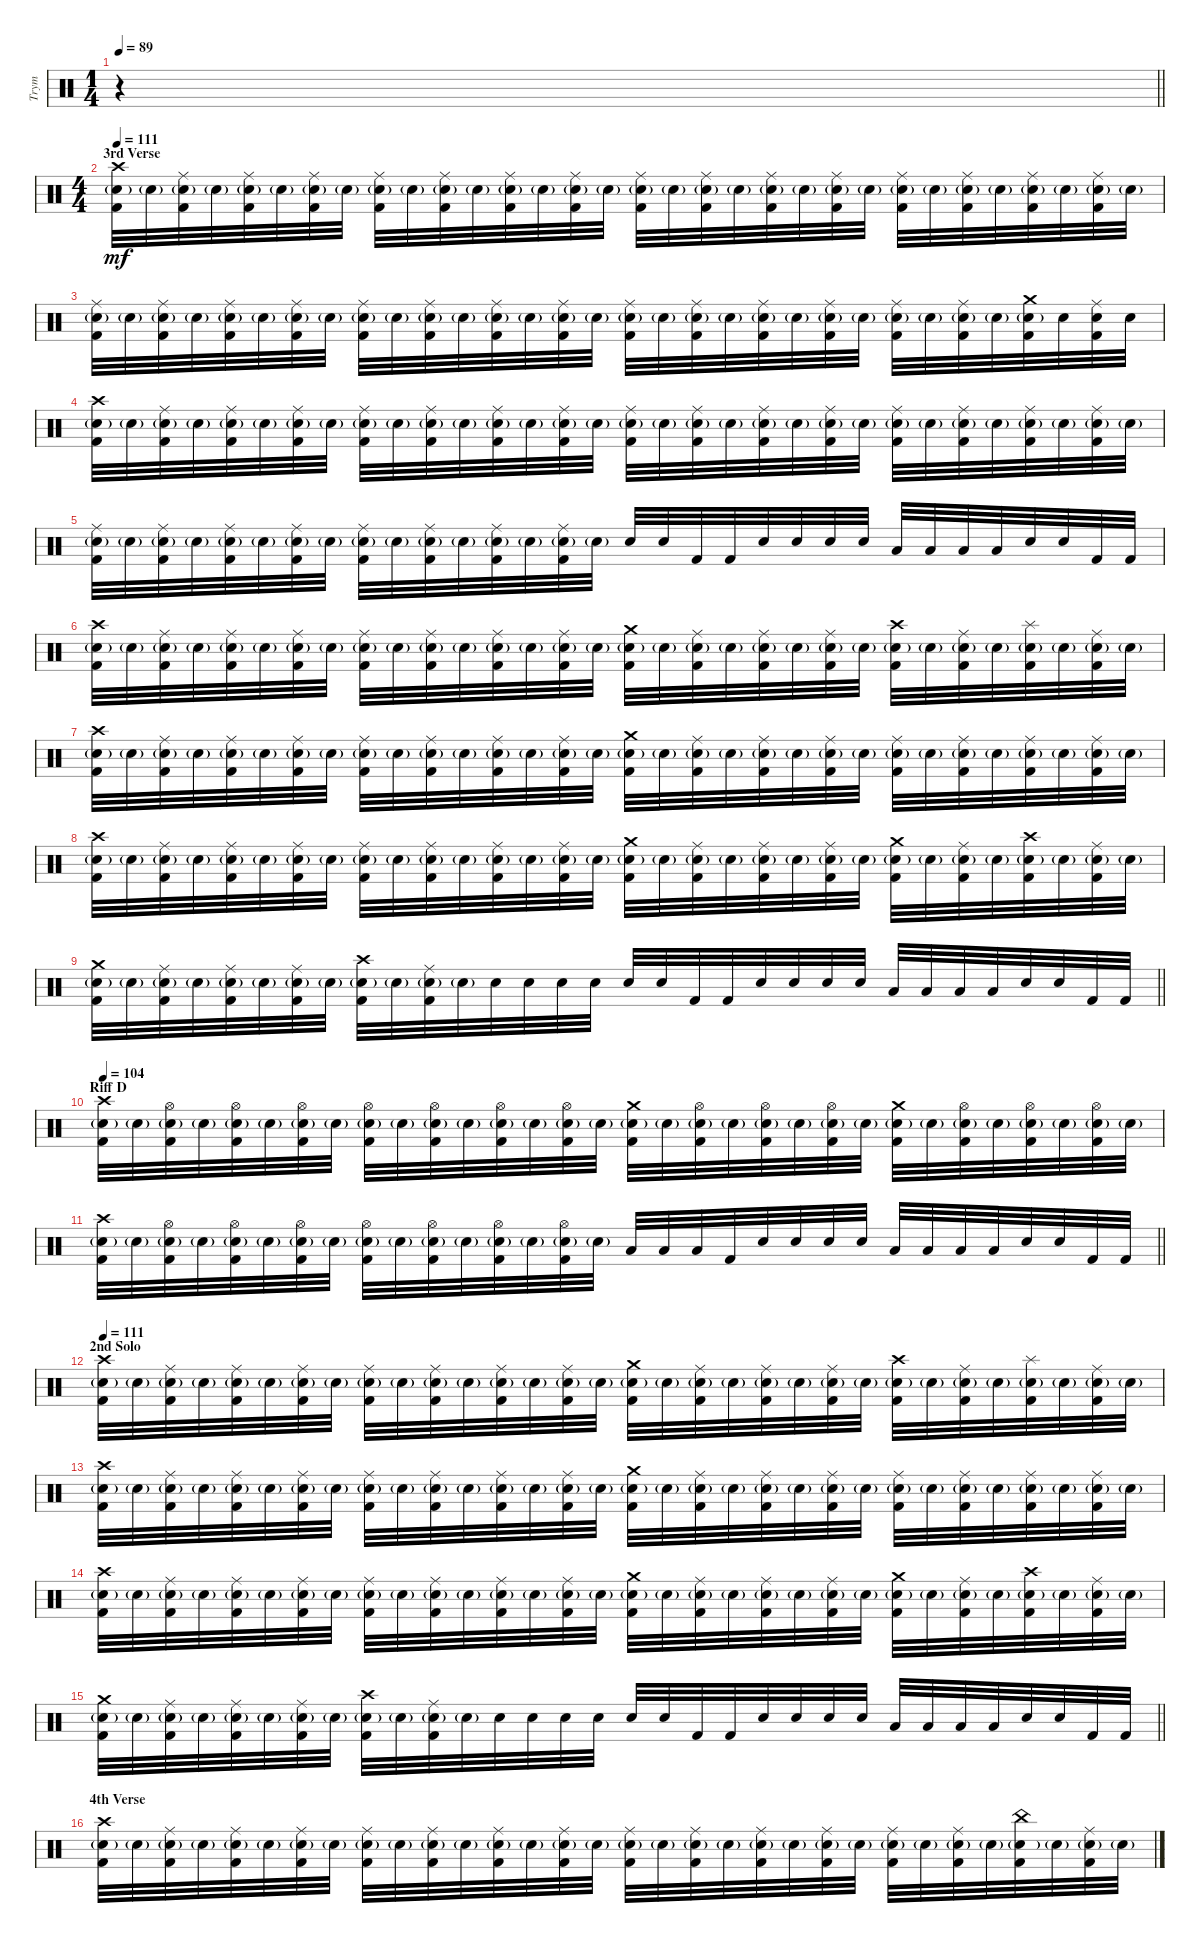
\track ("Trym" "Trym") {instrument percussion}
\staff {score}
\articulation defaults
\ts (1 4)
\tempo 89
\clef neutral
\barLineRight lightlight
\ks c
r.4{dy f} |
\ts (4 4)
\section ("" "3rd Verse")
\tempo 111
("Crash high (hit)" "Snare (hit) 2"{g} "Kick (hit) 2").32{dy mf} "Snare (hit) 2"{g}.32 ("Ride (middle)" "Snare (hit) 2"{g} "Kick (hit) 2").32 "Snare (hit) 2"{g}.32 ("Ride (middle)" "Snare (hit) 2"{g} "Kick (hit) 2").32 "Snare (hit) 2"{g}.32 ("Ride (middle)" "Snare (hit) 2"{g} "Kick (hit) 2").32 "Snare (hit) 2"{g}.32 ("Ride (middle)" "Snare (hit) 2"{g} "Kick (hit) 2").32 "Snare (hit) 2"{g}.32 ("Ride (middle)" "Snare (hit) 2"{g} "Kick (hit) 2").32 "Snare (hit) 2"{g}.32 ("Ride (middle)" "Snare (hit) 2"{g} "Kick (hit) 2").32 "Snare (hit) 2"{g}.32 ("Ride (middle)" "Snare (hit) 2"{g} "Kick (hit) 2").32 "Snare (hit) 2"{g}.32 ("Ride (middle)" "Snare (hit) 2"{g} "Kick (hit) 2").32 "Snare (hit) 2"{g}.32 ("Ride (middle)" "Snare (hit) 2"{g} "Kick (hit) 2").32 "Snare (hit) 2"{g}.32 ("Ride (middle)" "Snare (hit) 2"{g} "Kick (hit) 2").32 "Snare (hit) 2"{g}.32 ("Ride (middle)" "Snare (hit) 2"{g} "Kick (hit) 2").32 "Snare (hit) 2"{g}.32 ("Ride (middle)" "Snare (hit) 2"{g} "Kick (hit) 2").32 "Snare (hit) 2"{g}.32 ("Ride (middle)" "Snare (hit) 2"{g} "Kick (hit) 2").32 "Snare (hit) 2"{g}.32 ("Ride (middle)" "Snare (hit) 2"{g} "Kick (hit) 2").32 "Snare (hit) 2"{g}.32 ("Ride (middle)" "Snare (hit) 2"{g} "Kick (hit) 2").32 "Snare (hit) 2"{g}.32 |
("Ride (middle)" "Snare (hit) 2"{g} "Kick (hit) 2").32 "Snare (hit) 2"{g}.32 ("Ride (middle)" "Snare (hit) 2"{g} "Kick (hit) 2").32 "Snare (hit) 2"{g}.32 ("Ride (middle)" "Snare (hit) 2"{g} "Kick (hit) 2").32 "Snare (hit) 2"{g}.32 ("Ride (middle)" "Snare (hit) 2"{g} "Kick (hit) 2").32 "Snare (hit) 2"{g}.32 ("Ride (middle)" "Snare (hit) 2"{g} "Kick (hit) 2").32 "Snare (hit) 2"{g}.32 ("Ride (middle)" "Snare (hit) 2"{g} "Kick (hit) 2").32 "Snare (hit) 2"{g}.32 ("Ride (middle)" "Snare (hit) 2"{g} "Kick (hit) 2").32 "Snare (hit) 2"{g}.32 ("Ride (middle)" "Snare (hit) 2"{g} "Kick (hit) 2").32 "Snare (hit) 2"{g}.32 ("Ride (middle)" "Snare (hit) 2"{g} "Kick (hit) 2").32 "Snare (hit) 2"{g}.32 ("Ride (middle)" "Snare (hit) 2"{g} "Kick (hit) 2").32 "Snare (hit) 2"{g}.32 ("Ride (middle)" "Snare (hit) 2"{g} "Kick (hit) 2").32 "Snare (hit) 2"{g}.32 ("Ride (middle)" "Snare (hit) 2"{g} "Kick (hit) 2").32 "Snare (hit) 2"{g}.32 ("Ride (middle)" "Snare (hit) 2"{g} "Kick (hit) 2").32 "Snare (hit) 2"{g}.32 ("Ride (middle)" "Snare (hit) 2"{g} "Kick (hit) 2").32 "Snare (hit) 2"{g}.32 ("Crash medium (hit)" "Snare (hit) 2"{g} "Kick (hit) 2").32 "Snare (hit) 2".32 ("Ride (middle)" "Snare (hit) 2" "Kick (hit) 2").32 "Snare (hit) 2".32 |
("Crash high (hit)" "Snare (hit) 2"{g} "Kick (hit) 2").32 "Snare (hit) 2"{g}.32 ("Ride (middle)" "Snare (hit) 2"{g} "Kick (hit) 2").32 "Snare (hit) 2"{g}.32 ("Ride (middle)" "Snare (hit) 2"{g} "Kick (hit) 2").32 "Snare (hit) 2"{g}.32 ("Ride (middle)" "Snare (hit) 2"{g} "Kick (hit) 2").32 "Snare (hit) 2"{g}.32 ("Ride (middle)" "Snare (hit) 2"{g} "Kick (hit) 2").32 "Snare (hit) 2"{g}.32 ("Ride (middle)" "Snare (hit) 2"{g} "Kick (hit) 2").32 "Snare (hit) 2"{g}.32 ("Ride (middle)" "Snare (hit) 2"{g} "Kick (hit) 2").32 "Snare (hit) 2"{g}.32 ("Ride (middle)" "Snare (hit) 2"{g} "Kick (hit) 2").32 "Snare (hit) 2"{g}.32 ("Ride (middle)" "Snare (hit) 2"{g} "Kick (hit) 2").32 "Snare (hit) 2"{g}.32 ("Ride (middle)" "Snare (hit) 2"{g} "Kick (hit) 2").32 "Snare (hit) 2"{g}.32 ("Ride (middle)" "Snare (hit) 2"{g} "Kick (hit) 2").32 "Snare (hit) 2"{g}.32 ("Ride (middle)" "Snare (hit) 2"{g} "Kick (hit) 2").32 "Snare (hit) 2"{g}.32 ("Ride (middle)" "Snare (hit) 2"{g} "Kick (hit) 2").32 "Snare (hit) 2"{g}.32 ("Ride (middle)" "Snare (hit) 2"{g} "Kick (hit) 2").32 "Snare (hit) 2"{g}.32 ("Ride (middle)" "Snare (hit) 2"{g} "Kick (hit) 2").32 "Snare (hit) 2"{g}.32 ("Ride (middle)" "Snare (hit) 2"{g} "Kick (hit) 2").32 "Snare (hit) 2"{g}.32 |
("Ride (middle)" "Snare (hit) 2"{g} "Kick (hit) 2").32 "Snare (hit) 2"{g}.32 ("Ride (middle)" "Snare (hit) 2"{g} "Kick (hit) 2").32 "Snare (hit) 2"{g}.32 ("Ride (middle)" "Snare (hit) 2"{g} "Kick (hit) 2").32 "Snare (hit) 2"{g}.32 ("Ride (middle)" "Snare (hit) 2"{g} "Kick (hit) 2").32 "Snare (hit) 2"{g}.32 ("Ride (middle)" "Snare (hit) 2"{g} "Kick (hit) 2").32 "Snare (hit) 2"{g}.32 ("Ride (middle)" "Snare (hit) 2"{g} "Kick (hit) 2").32 "Snare (hit) 2"{g}.32 ("Ride (middle)" "Snare (hit) 2"{g} "Kick (hit) 2").32 "Snare (hit) 2"{g}.32 ("Ride (middle)" "Snare (hit) 2"{g} "Kick (hit) 2").32 "Snare (hit) 2"{g}.32 "Snare (hit) 2".32 "Snare (hit) 2".32 "Kick (hit) 2".32 "Kick (hit) 2".32 "Snare (hit) 2".32 "Snare (hit) 2".32 "Snare (hit) 2".32 "Snare (hit) 2".32 "Low Tom (hit)".32 "Low Tom (hit)".32 "Low Tom (hit)".32 "Low Tom (hit)".32 "Snare (hit) 2".32 "Snare (hit) 2".32 "Kick (hit) 2".32 "Kick (hit) 2".32 |
("Crash high (hit)" "Snare (hit) 2"{g} "Kick (hit) 2").32 "Snare (hit) 2"{g}.32 ("Ride (middle)" "Snare (hit) 2"{g} "Kick (hit) 2").32 "Snare (hit) 2"{g}.32 ("Ride (middle)" "Snare (hit) 2"{g} "Kick (hit) 2").32 "Snare (hit) 2"{g}.32 ("Ride (middle)" "Snare (hit) 2"{g} "Kick (hit) 2").32 "Snare (hit) 2"{g}.32 ("Ride (middle)" "Snare (hit) 2"{g} "Kick (hit) 2").32 "Snare (hit) 2"{g}.32 ("Ride (middle)" "Snare (hit) 2"{g} "Kick (hit) 2").32 "Snare (hit) 2"{g}.32 ("Ride (middle)" "Snare (hit) 2"{g} "Kick (hit) 2").32 "Snare (hit) 2"{g}.32 ("Ride (middle)" "Snare (hit) 2"{g} "Kick (hit) 2").32 "Snare (hit) 2"{g}.32 ("Crash medium (hit)" "Snare (hit) 2"{g} "Kick (hit) 2").32 "Snare (hit) 2"{g}.32 ("Ride (middle)" "Snare (hit) 2"{g} "Kick (hit) 2").32 "Snare (hit) 2"{g}.32 ("Ride (middle)" "Snare (hit) 2"{g} "Kick (hit) 2").32 "Snare (hit) 2"{g}.32 ("Ride (middle)" "Snare (hit) 2"{g} "Kick (hit) 2").32 "Snare (hit) 2"{g}.32 ("Crash high (hit)" "Snare (hit) 2"{g} "Kick (hit) 2").32 "Snare (hit) 2"{g}.32 ("Ride (middle)" "Snare (hit) 2"{g} "Kick (hit) 2").32 "Snare (hit) 2"{g}.32 ("Splash (hit)" "Snare (hit) 2"{g} "Kick (hit) 2").32 "Snare (hit) 2"{g}.32 ("Ride (middle)" "Snare (hit) 2"{g} "Kick (hit) 2").32 "Snare (hit) 2"{g}.32 |
("Crash high (hit)" "Snare (hit) 2"{g} "Kick (hit) 2").32 "Snare (hit) 2"{g}.32 ("Ride (middle)" "Snare (hit) 2"{g} "Kick (hit) 2").32 "Snare (hit) 2"{g}.32 ("Ride (middle)" "Snare (hit) 2"{g} "Kick (hit) 2").32 "Snare (hit) 2"{g}.32 ("Ride (middle)" "Snare (hit) 2"{g} "Kick (hit) 2").32 "Snare (hit) 2"{g}.32 ("Ride (middle)" "Snare (hit) 2"{g} "Kick (hit) 2").32 "Snare (hit) 2"{g}.32 ("Ride (middle)" "Snare (hit) 2"{g} "Kick (hit) 2").32 "Snare (hit) 2"{g}.32 ("Ride (middle)" "Snare (hit) 2"{g} "Kick (hit) 2").32 "Snare (hit) 2"{g}.32 ("Ride (middle)" "Snare (hit) 2"{g} "Kick (hit) 2").32 "Snare (hit) 2"{g}.32 ("Crash medium (hit)" "Snare (hit) 2"{g} "Kick (hit) 2").32 "Snare (hit) 2"{g}.32 ("Ride (middle)" "Snare (hit) 2"{g} "Kick (hit) 2").32 "Snare (hit) 2"{g}.32 ("Ride (middle)" "Snare (hit) 2"{g} "Kick (hit) 2").32 "Snare (hit) 2"{g}.32 ("Ride (middle)" "Snare (hit) 2"{g} "Kick (hit) 2").32 "Snare (hit) 2"{g}.32 ("Ride (middle)" "Snare (hit) 2"{g} "Kick (hit) 2").32 "Snare (hit) 2"{g}.32 ("Ride (middle)" "Snare (hit) 2"{g} "Kick (hit) 2").32 "Snare (hit) 2"{g}.32 ("Ride (middle)" "Snare (hit) 2"{g} "Kick (hit) 2").32 "Snare (hit) 2"{g}.32 ("Ride (middle)" "Snare (hit) 2"{g} "Kick (hit) 2").32 "Snare (hit) 2"{g}.32 |
("Crash high (hit)" "Snare (hit) 2"{g} "Kick (hit) 2").32 "Snare (hit) 2"{g}.32 ("Ride (middle)" "Snare (hit) 2"{g} "Kick (hit) 2").32 "Snare (hit) 2"{g}.32 ("Ride (middle)" "Snare (hit) 2"{g} "Kick (hit) 2").32 "Snare (hit) 2"{g}.32 ("Ride (middle)" "Snare (hit) 2"{g} "Kick (hit) 2").32 "Snare (hit) 2"{g}.32 ("Ride (middle)" "Snare (hit) 2"{g} "Kick (hit) 2").32 "Snare (hit) 2"{g}.32 ("Ride (middle)" "Snare (hit) 2"{g} "Kick (hit) 2").32 "Snare (hit) 2"{g}.32 ("Ride (middle)" "Snare (hit) 2"{g} "Kick (hit) 2").32 "Snare (hit) 2"{g}.32 ("Ride (middle)" "Snare (hit) 2"{g} "Kick (hit) 2").32 "Snare (hit) 2"{g}.32 ("Crash medium (hit)" "Snare (hit) 2"{g} "Kick (hit) 2").32 "Snare (hit) 2"{g}.32 ("Ride (middle)" "Snare (hit) 2"{g} "Kick (hit) 2").32 "Snare (hit) 2"{g}.32 ("Ride (middle)" "Snare (hit) 2"{g} "Kick (hit) 2").32 "Snare (hit) 2"{g}.32 ("Ride (middle)" "Snare (hit) 2"{g} "Kick (hit) 2").32 "Snare (hit) 2"{g}.32 ("Crash medium (hit)" "Snare (hit) 2"{g} "Kick (hit) 2").32 "Snare (hit) 2"{g}.32 ("Ride (middle)" "Snare (hit) 2"{g} "Kick (hit) 2").32 "Snare (hit) 2"{g}.32 ("Crash high (hit)" "Snare (hit) 2"{g} "Kick (hit) 2").32 "Snare (hit) 2"{g}.32 ("Ride (middle)" "Snare (hit) 2"{g} "Kick (hit) 2").32 "Snare (hit) 2"{g}.32 |
\barLineRight lightlight
("Crash medium (hit)" "Snare (hit) 2"{g} "Kick (hit) 2").32 "Snare (hit) 2"{g}.32 ("Ride (middle)" "Snare (hit) 2"{g} "Kick (hit) 2").32 "Snare (hit) 2"{g}.32 ("Ride (middle)" "Snare (hit) 2"{g} "Kick (hit) 2").32 "Snare (hit) 2"{g}.32 ("Ride (middle)" "Snare (hit) 2"{g} "Kick (hit) 2").32 "Snare (hit) 2"{g}.32 ("Crash high (hit)" "Snare (hit) 2"{g} "Kick (hit) 2").32 "Snare (hit) 2"{g}.32 ("Ride (middle)" "Snare (hit) 2"{g} "Kick (hit) 2").32 "Snare (hit) 2"{g}.32 "Snare (hit) 2".32 "Snare (hit) 2".32 "Snare (hit) 2".32 "Snare (hit) 2".32 "Snare (hit) 2".32 "Snare (hit) 2".32 "Kick (hit) 2".32 "Kick (hit) 2".32 "Snare (hit) 2".32 "Snare (hit) 2".32 "Snare (hit) 2".32 "Snare (hit) 2".32 "Low Tom (hit)".32 "Low Tom (hit)".32 "Low Tom (hit)".32 "Low Tom (hit)".32 "Snare (hit) 2".32 "Snare (hit) 2".32 "Kick (hit) 2".32 "Kick (hit) 2".32 |
\section ("" "Riff D")
\tempo 104
("Crash high (hit)" "Snare (hit) 2"{g} "Kick (hit) 2").32 "Snare (hit) 2"{g}.32 ("Hi-Hat (open)" "Snare (hit) 2"{g} "Kick (hit) 2").32 "Snare (hit) 2"{g}.32 ("Hi-Hat (open)" "Snare (hit) 2"{g} "Kick (hit) 2").32 "Snare (hit) 2"{g}.32 ("Hi-Hat (open)" "Snare (hit) 2"{g} "Kick (hit) 2").32 "Snare (hit) 2"{g}.32 ("Hi-Hat (open)" "Snare (hit) 2"{g} "Kick (hit) 2").32 "Snare (hit) 2"{g}.32 ("Hi-Hat (open)" "Snare (hit) 2"{g} "Kick (hit) 2").32 "Snare (hit) 2"{g}.32 ("Hi-Hat (open)" "Snare (hit) 2"{g} "Kick (hit) 2").32 "Snare (hit) 2"{g}.32 ("Hi-Hat (open)" "Snare (hit) 2"{g} "Kick (hit) 2").32 "Snare (hit) 2"{g}.32 ("Crash medium (hit)" "Snare (hit) 2"{g} "Kick (hit) 2").32 "Snare (hit) 2"{g}.32 ("Hi-Hat (open)" "Snare (hit) 2"{g} "Kick (hit) 2").32 "Snare (hit) 2"{g}.32 ("Hi-Hat (open)" "Snare (hit) 2"{g} "Kick (hit) 2").32 "Snare (hit) 2"{g}.32 ("Hi-Hat (open)" "Snare (hit) 2"{g} "Kick (hit) 2").32 "Snare (hit) 2"{g}.32 ("Crash medium (hit)" "Snare (hit) 2"{g} "Kick (hit) 2").32 "Snare (hit) 2"{g}.32 ("Hi-Hat (open)" "Snare (hit) 2"{g} "Kick (hit) 2").32 "Snare (hit) 2"{g}.32 ("Hi-Hat (open)" "Snare (hit) 2"{g} "Kick (hit) 2").32 "Snare (hit) 2"{g}.32 ("Hi-Hat (open)" "Snare (hit) 2"{g} "Kick (hit) 2").32 "Snare (hit) 2"{g}.32 |
\barLineRight lightlight
("Crash high (hit)" "Snare (hit) 2"{g} "Kick (hit) 2").32 "Snare (hit) 2"{g}.32 ("Hi-Hat (open)" "Snare (hit) 2"{g} "Kick (hit) 2").32 "Snare (hit) 2"{g}.32 ("Hi-Hat (open)" "Snare (hit) 2"{g} "Kick (hit) 2").32 "Snare (hit) 2"{g}.32 ("Hi-Hat (open)" "Snare (hit) 2"{g} "Kick (hit) 2").32 "Snare (hit) 2"{g}.32 ("Hi-Hat (open)" "Snare (hit) 2"{g} "Kick (hit) 2").32 "Snare (hit) 2"{g}.32 ("Hi-Hat (open)" "Snare (hit) 2"{g} "Kick (hit) 2").32 "Snare (hit) 2"{g}.32 ("Hi-Hat (open)" "Snare (hit) 2"{g} "Kick (hit) 2").32 "Snare (hit) 2"{g}.32 ("Hi-Hat (open)" "Snare (hit) 2"{g} "Kick (hit) 2").32 "Snare (hit) 2"{g}.32 "Low Tom (hit)".32 "Low Tom (hit)".32 "Low Tom (hit)".32 "Kick (hit) 2".32 "Snare (hit) 2".32 "Snare (hit) 2".32 "Snare (hit) 2".32 "Snare (hit) 2".32 "Low Tom (hit)".32 "Low Tom (hit)".32 "Low Tom (hit)".32 "Low Tom (hit)".32 "Snare (hit) 2".32 "Snare (hit) 2".32 "Kick (hit) 2".32 "Kick (hit) 2".32 |
\section ("" "2nd Solo")
\tempo 111
("Crash high (hit)" "Snare (hit) 2"{g} "Kick (hit) 2").32 "Snare (hit) 2"{g}.32 ("Ride (middle)" "Snare (hit) 2"{g} "Kick (hit) 2").32 "Snare (hit) 2"{g}.32 ("Ride (middle)" "Snare (hit) 2"{g} "Kick (hit) 2").32 "Snare (hit) 2"{g}.32 ("Ride (middle)" "Snare (hit) 2"{g} "Kick (hit) 2").32 "Snare (hit) 2"{g}.32 ("Ride (middle)" "Snare (hit) 2"{g} "Kick (hit) 2").32 "Snare (hit) 2"{g}.32 ("Ride (middle)" "Snare (hit) 2"{g} "Kick (hit) 2").32 "Snare (hit) 2"{g}.32 ("Ride (middle)" "Snare (hit) 2"{g} "Kick (hit) 2").32 "Snare (hit) 2"{g}.32 ("Ride (middle)" "Snare (hit) 2"{g} "Kick (hit) 2").32 "Snare (hit) 2"{g}.32 ("Crash medium (hit)" "Snare (hit) 2"{g} "Kick (hit) 2").32 "Snare (hit) 2"{g}.32 ("Ride (middle)" "Snare (hit) 2"{g} "Kick (hit) 2").32 "Snare (hit) 2"{g}.32 ("Ride (middle)" "Snare (hit) 2"{g} "Kick (hit) 2").32 "Snare (hit) 2"{g}.32 ("Ride (middle)" "Snare (hit) 2"{g} "Kick (hit) 2").32 "Snare (hit) 2"{g}.32 ("Crash high (hit)" "Snare (hit) 2"{g} "Kick (hit) 2").32 "Snare (hit) 2"{g}.32 ("Ride (middle)" "Snare (hit) 2"{g} "Kick (hit) 2").32 "Snare (hit) 2"{g}.32 ("Splash (hit)" "Snare (hit) 2"{g} "Kick (hit) 2").32 "Snare (hit) 2"{g}.32 ("Ride (middle)" "Snare (hit) 2"{g} "Kick (hit) 2").32 "Snare (hit) 2"{g}.32 |
("Crash high (hit)" "Snare (hit) 2"{g} "Kick (hit) 2").32 "Snare (hit) 2"{g}.32 ("Ride (middle)" "Snare (hit) 2"{g} "Kick (hit) 2").32 "Snare (hit) 2"{g}.32 ("Ride (middle)" "Snare (hit) 2"{g} "Kick (hit) 2").32 "Snare (hit) 2"{g}.32 ("Ride (middle)" "Snare (hit) 2"{g} "Kick (hit) 2").32 "Snare (hit) 2"{g}.32 ("Ride (middle)" "Snare (hit) 2"{g} "Kick (hit) 2").32 "Snare (hit) 2"{g}.32 ("Ride (middle)" "Snare (hit) 2"{g} "Kick (hit) 2").32 "Snare (hit) 2"{g}.32 ("Ride (middle)" "Snare (hit) 2"{g} "Kick (hit) 2").32 "Snare (hit) 2"{g}.32 ("Ride (middle)" "Snare (hit) 2"{g} "Kick (hit) 2").32 "Snare (hit) 2"{g}.32 ("Crash medium (hit)" "Snare (hit) 2"{g} "Kick (hit) 2").32 "Snare (hit) 2"{g}.32 ("Ride (middle)" "Snare (hit) 2"{g} "Kick (hit) 2").32 "Snare (hit) 2"{g}.32 ("Ride (middle)" "Snare (hit) 2"{g} "Kick (hit) 2").32 "Snare (hit) 2"{g}.32 ("Ride (middle)" "Snare (hit) 2"{g} "Kick (hit) 2").32 "Snare (hit) 2"{g}.32 ("Ride (middle)" "Snare (hit) 2"{g} "Kick (hit) 2").32 "Snare (hit) 2"{g}.32 ("Ride (middle)" "Snare (hit) 2"{g} "Kick (hit) 2").32 "Snare (hit) 2"{g}.32 ("Ride (middle)" "Snare (hit) 2"{g} "Kick (hit) 2").32 "Snare (hit) 2"{g}.32 ("Ride (middle)" "Snare (hit) 2"{g} "Kick (hit) 2").32 "Snare (hit) 2"{g}.32 |
("Crash high (hit)" "Snare (hit) 2"{g} "Kick (hit) 2").32 "Snare (hit) 2"{g}.32 ("Ride (middle)" "Snare (hit) 2"{g} "Kick (hit) 2").32 "Snare (hit) 2"{g}.32 ("Ride (middle)" "Snare (hit) 2"{g} "Kick (hit) 2").32 "Snare (hit) 2"{g}.32 ("Ride (middle)" "Snare (hit) 2"{g} "Kick (hit) 2").32 "Snare (hit) 2"{g}.32 ("Ride (middle)" "Snare (hit) 2"{g} "Kick (hit) 2").32 "Snare (hit) 2"{g}.32 ("Ride (middle)" "Snare (hit) 2"{g} "Kick (hit) 2").32 "Snare (hit) 2"{g}.32 ("Ride (middle)" "Snare (hit) 2"{g} "Kick (hit) 2").32 "Snare (hit) 2"{g}.32 ("Ride (middle)" "Snare (hit) 2"{g} "Kick (hit) 2").32 "Snare (hit) 2"{g}.32 ("Crash medium (hit)" "Snare (hit) 2"{g} "Kick (hit) 2").32 "Snare (hit) 2"{g}.32 ("Ride (middle)" "Snare (hit) 2"{g} "Kick (hit) 2").32 "Snare (hit) 2"{g}.32 ("Ride (middle)" "Snare (hit) 2"{g} "Kick (hit) 2").32 "Snare (hit) 2"{g}.32 ("Ride (middle)" "Snare (hit) 2"{g} "Kick (hit) 2").32 "Snare (hit) 2"{g}.32 ("Crash medium (hit)" "Snare (hit) 2"{g} "Kick (hit) 2").32 "Snare (hit) 2"{g}.32 ("Ride (middle)" "Snare (hit) 2"{g} "Kick (hit) 2").32 "Snare (hit) 2"{g}.32 ("Crash high (hit)" "Snare (hit) 2"{g} "Kick (hit) 2").32 "Snare (hit) 2"{g}.32 ("Ride (middle)" "Snare (hit) 2"{g} "Kick (hit) 2").32 "Snare (hit) 2"{g}.32 |
\barLineRight lightlight
("Crash medium (hit)" "Snare (hit) 2"{g} "Kick (hit) 2").32 "Snare (hit) 2"{g}.32 ("Ride (middle)" "Snare (hit) 2"{g} "Kick (hit) 2").32 "Snare (hit) 2"{g}.32 ("Ride (middle)" "Snare (hit) 2"{g} "Kick (hit) 2").32 "Snare (hit) 2"{g}.32 ("Ride (middle)" "Snare (hit) 2"{g} "Kick (hit) 2").32 "Snare (hit) 2"{g}.32 ("Crash high (hit)" "Snare (hit) 2"{g} "Kick (hit) 2").32 "Snare (hit) 2"{g}.32 ("Ride (middle)" "Snare (hit) 2"{g} "Kick (hit) 2").32 "Snare (hit) 2"{g}.32 "Snare (hit) 2".32 "Snare (hit) 2".32 "Snare (hit) 2".32 "Snare (hit) 2".32 "Snare (hit) 2".32 "Snare (hit) 2".32 "Kick (hit) 2".32 "Kick (hit) 2".32 "Snare (hit) 2".32 "Snare (hit) 2".32 "Snare (hit) 2".32 "Snare (hit) 2".32 "Low Tom (hit)".32 "Low Tom (hit)".32 "Low Tom (hit)".32 "Low Tom (hit)".32 "Snare (hit) 2".32 "Snare (hit) 2".32 "Kick (hit) 2".32 "Kick (hit) 2".32 |
\section ("" "4th Verse")
("Crash high (hit)" "Snare (hit) 2"{g} "Kick (hit) 2").32 "Snare (hit) 2"{g}.32 ("Ride (middle)" "Snare (hit) 2"{g} "Kick (hit) 2").32 "Snare (hit) 2"{g}.32 ("Ride (middle)" "Snare (hit) 2"{g} "Kick (hit) 2").32 "Snare (hit) 2"{g}.32 ("Ride (middle)" "Snare (hit) 2"{g} "Kick (hit) 2").32 "Snare (hit) 2"{g}.32 ("Ride (middle)" "Snare (hit) 2"{g} "Kick (hit) 2").32 "Snare (hit) 2"{g}.32 ("Ride (middle)" "Snare (hit) 2"{g} "Kick (hit) 2").32 "Snare (hit) 2"{g}.32 ("Ride (middle)" "Snare (hit) 2"{g} "Kick (hit) 2").32 "Snare (hit) 2"{g}.32 ("Ride (middle)" "Snare (hit) 2"{g} "Kick (hit) 2").32 "Snare (hit) 2"{g}.32 ("Ride (middle)" "Snare (hit) 2"{g} "Kick (hit) 2").32 "Snare (hit) 2"{g}.32 ("Ride (middle)" "Snare (hit) 2"{g} "Kick (hit) 2").32 "Snare (hit) 2"{g}.32 ("Ride (middle)" "Snare (hit) 2"{g} "Kick (hit) 2").32 "Snare (hit) 2"{g}.32 ("Ride (middle)" "Snare (hit) 2"{g} "Kick (hit) 2").32 "Snare (hit) 2"{g}.32 ("Ride (middle)" "Snare (hit) 2"{g} "Kick (hit) 2").32 "Snare (hit) 2"{g}.32 ("Ride (middle)" "Snare (hit) 2"{g} "Kick (hit) 2").32 "Snare (hit) 2"{g}.32 ("China (hit)" "Snare (hit) 2"{g} "Kick (hit) 2").32 "Snare (hit) 2"{g}.32 ("Ride (middle)" "Snare (hit) 2"{g} "Kick (hit) 2").32 "Snare (hit) 2"{g}.32
